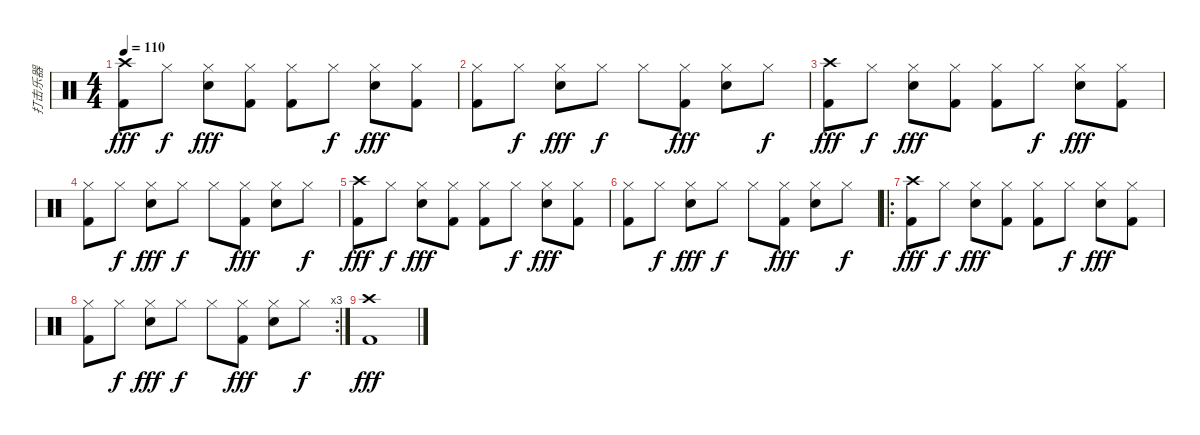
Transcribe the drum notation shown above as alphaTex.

\track ("打击乐器" "打击乐器") {instrument percussion}
\staff {score}
\articulation defaults
\ts (4 4)
\tempo 110
\clef neutral
\ks c
("Crash high (hit)" "Kick (hit) 2").8{dy fff} "Hi-Hat (closed)".8{dy f} ("Hi-Hat (closed)" "Electric Snare (hit)").8{dy fff} ("Hi-Hat (closed)" "Kick (hit) 2").8 ("Hi-Hat (closed)" "Kick (hit) 2").8 "Hi-Hat (closed)".8{dy f} ("Hi-Hat (closed)" "Electric Snare (hit)").8{dy fff} ("Hi-Hat (closed)" "Kick (hit) 2").8 |
("Hi-Hat (closed)" "Kick (hit) 2").8 "Hi-Hat (closed)".8{dy f} ("Hi-Hat (closed)" "Electric Snare (hit)").8{dy fff} "Hi-Hat (closed)".8{dy f} "Hi-Hat (closed)".8 ("Hi-Hat (closed)" "Kick (hit) 2").8{dy fff} ("Hi-Hat (closed)" "Electric Snare (hit)").8 "Hi-Hat (closed)".8{dy f} |
("Crash high (hit)" "Kick (hit) 2").8{dy fff} "Hi-Hat (closed)".8{dy f} ("Hi-Hat (closed)" "Electric Snare (hit)").8{dy fff} ("Hi-Hat (closed)" "Kick (hit) 2").8 ("Hi-Hat (closed)" "Kick (hit) 2").8 "Hi-Hat (closed)".8{dy f} ("Hi-Hat (closed)" "Electric Snare (hit)").8{dy fff} ("Hi-Hat (closed)" "Kick (hit) 2").8 |
("Hi-Hat (closed)" "Kick (hit) 2").8 "Hi-Hat (closed)".8{dy f} ("Hi-Hat (closed)" "Electric Snare (hit)").8{dy fff} "Hi-Hat (closed)".8{dy f} "Hi-Hat (closed)".8 ("Hi-Hat (closed)" "Kick (hit) 2").8{dy fff} ("Hi-Hat (closed)" "Electric Snare (hit)").8 "Hi-Hat (closed)".8{dy f} |
("Crash high (hit)" "Kick (hit) 2").8{dy fff} "Hi-Hat (closed)".8{dy f} ("Hi-Hat (closed)" "Electric Snare (hit)").8{dy fff} ("Hi-Hat (closed)" "Kick (hit) 2").8 ("Hi-Hat (closed)" "Kick (hit) 2").8 "Hi-Hat (closed)".8{dy f} ("Hi-Hat (closed)" "Electric Snare (hit)").8{dy fff} ("Hi-Hat (closed)" "Kick (hit) 2").8 |
("Hi-Hat (closed)" "Kick (hit) 2").8 "Hi-Hat (closed)".8{dy f} ("Hi-Hat (closed)" "Electric Snare (hit)").8{dy fff} "Hi-Hat (closed)".8{dy f} "Hi-Hat (closed)".8 ("Hi-Hat (closed)" "Kick (hit) 2").8{dy fff} ("Hi-Hat (closed)" "Electric Snare (hit)").8 "Hi-Hat (closed)".8{dy f} |
\ro
("Crash high (hit)" "Kick (hit) 2").8{dy fff} "Hi-Hat (closed)".8{dy f} ("Hi-Hat (closed)" "Electric Snare (hit)").8{dy fff} ("Hi-Hat (closed)" "Kick (hit) 2").8 ("Hi-Hat (closed)" "Kick (hit) 2").8 "Hi-Hat (closed)".8{dy f} ("Hi-Hat (closed)" "Electric Snare (hit)").8{dy fff} ("Hi-Hat (closed)" "Kick (hit) 2").8 |
\rc 3
("Hi-Hat (closed)" "Kick (hit) 2").8 "Hi-Hat (closed)".8{dy f} ("Hi-Hat (closed)" "Electric Snare (hit)").8{dy fff} "Hi-Hat (closed)".8{dy f} "Hi-Hat (closed)".8 ("Hi-Hat (closed)" "Kick (hit) 2").8{dy fff} ("Hi-Hat (closed)" "Electric Snare (hit)").8 "Hi-Hat (closed)".8{dy f} |
("Crash high (hit)" "Kick (hit) 2").1{dy fff}
